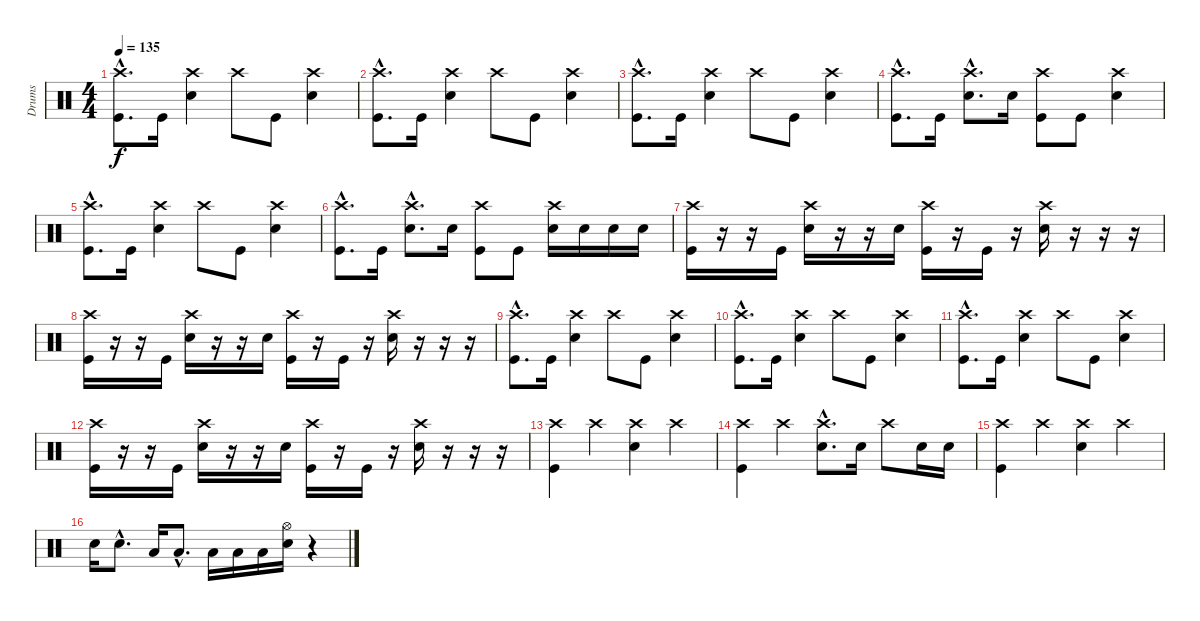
\track ("Drums" "Drums") {instrument percussion}
\staff {score}
\articulation defaults
\ts (4 4)
\tempo 135
\clef neutral
\ks c
("Crash high (hit)"{hac} "Kick (hit)"{hac}).8{d dy f} "Kick (hit)".16 ("Crash high (hit)" "Electric Snare (hit)").4 "Crash high (hit)".8 "Kick (hit)".8 ("Crash high (hit)" "Electric Snare (hit)").4 |
("Crash high (hit)"{hac} "Kick (hit)"{hac}).8{d} "Kick (hit)".16 ("Crash high (hit)" "Electric Snare (hit)").4 "Crash high (hit)".8 "Kick (hit)".8 ("Crash high (hit)" "Electric Snare (hit)").4 |
("Crash high (hit)"{hac} "Kick (hit)"{hac}).8{d} "Kick (hit)".16 ("Crash high (hit)" "Electric Snare (hit)").4 "Crash high (hit)".8 "Kick (hit)".8 ("Crash high (hit)" "Electric Snare (hit)").4 |
("Crash high (hit)"{hac} "Kick (hit)"{hac}).8{d} "Kick (hit)".16 ("Crash high (hit)"{hac} "Electric Snare (hit)"{hac}).8{d} "Electric Snare (hit)".16 ("Crash high (hit)" "Kick (hit)").8 "Kick (hit)".8 ("Crash high (hit)" "Electric Snare (hit)").4 |
("Crash high (hit)"{hac} "Kick (hit)"{hac}).8{d} "Kick (hit)".16 ("Crash high (hit)" "Electric Snare (hit)").4 "Crash high (hit)".8 "Kick (hit)".8 ("Crash high (hit)" "Electric Snare (hit)").4 |
("Crash high (hit)"{hac} "Kick (hit)"{hac}).8{d} "Kick (hit)".16 ("Crash high (hit)"{hac} "Electric Snare (hit)"{hac}).8{d} "Electric Snare (hit)".16 ("Crash high (hit)" "Kick (hit)").8 "Kick (hit)".8 ("Crash high (hit)" "Electric Snare (hit)").16 "Electric Snare (hit)".16 "Electric Snare (hit)".16 "Electric Snare (hit)".16 |
("Crash high (hit)" "Kick (hit)").16 r.16 r.16 "Kick (hit)".16 ("Crash high (hit)" "Electric Snare (hit)").16 r.16 r.16 "Electric Snare (hit)".16 ("Crash high (hit)" "Kick (hit)").16 r.16 "Kick (hit)".16 r.16 ("Crash high (hit)" "Electric Snare (hit)").16 r.16 r.16 r.16 |
("Crash high (hit)" "Kick (hit)").16 r.16 r.16 "Kick (hit)".16 ("Crash high (hit)" "Electric Snare (hit)").16 r.16 r.16 "Electric Snare (hit)".16 ("Crash high (hit)" "Kick (hit)").16 r.16 "Kick (hit)".16 r.16 ("Crash high (hit)" "Electric Snare (hit)").16 r.16 r.16 r.16 |
("Crash high (hit)"{hac} "Kick (hit)"{hac}).8{d} "Kick (hit)".16 ("Crash high (hit)" "Electric Snare (hit)").4 "Crash high (hit)".8 "Kick (hit)".8 ("Crash high (hit)" "Electric Snare (hit)").4 |
("Crash high (hit)"{hac} "Kick (hit)"{hac}).8{d} "Kick (hit)".16 ("Crash high (hit)" "Electric Snare (hit)").4 "Crash high (hit)".8 "Kick (hit)".8 ("Crash high (hit)" "Electric Snare (hit)").4 |
("Crash high (hit)"{hac} "Kick (hit)"{hac}).8{d} "Kick (hit)".16 ("Crash high (hit)" "Electric Snare (hit)").4 "Crash high (hit)".8 "Kick (hit)".8 ("Crash high (hit)" "Electric Snare (hit)").4 |
("Crash high (hit)" "Kick (hit)").16 r.16 r.16 "Kick (hit)".16 ("Crash high (hit)" "Electric Snare (hit)").16 r.16 r.16 "Electric Snare (hit)".16 ("Crash high (hit)" "Kick (hit)").16 r.16 "Kick (hit)".16 r.16 ("Crash high (hit)" "Electric Snare (hit)").16 r.16 r.16 r.16 |
("Crash high (hit)" "Kick (hit)").4 "Crash high (hit)".4 ("Crash high (hit)" "Electric Snare (hit)").4 "Crash high (hit)".4 |
("Crash high (hit)" "Kick (hit)").4 "Crash high (hit)".4 ("Crash high (hit)"{hac} "Electric Snare (hit)"{hac}).8{d} "Electric Snare (hit)".16 "Crash high (hit)".8 "Electric Snare (hit)".16 "Electric Snare (hit)".16 |
("Crash high (hit)" "Kick (hit)").4 "Crash high (hit)".4 ("Crash high (hit)" "Electric Snare (hit)").4 "Crash high (hit)".4 |
"Electric Snare (hit)".16 "Electric Snare (hit)"{hac}.8{d} "Low Tom (hit)".16 "Low Tom (hit)"{hac}.8{d} "Low Floor Tom (hit)".16 "Low Floor Tom (hit)".16 "Low Floor Tom (hit)".16 ("Hi-Hat (open)" "Electric Snare (hit)").16 r.4
